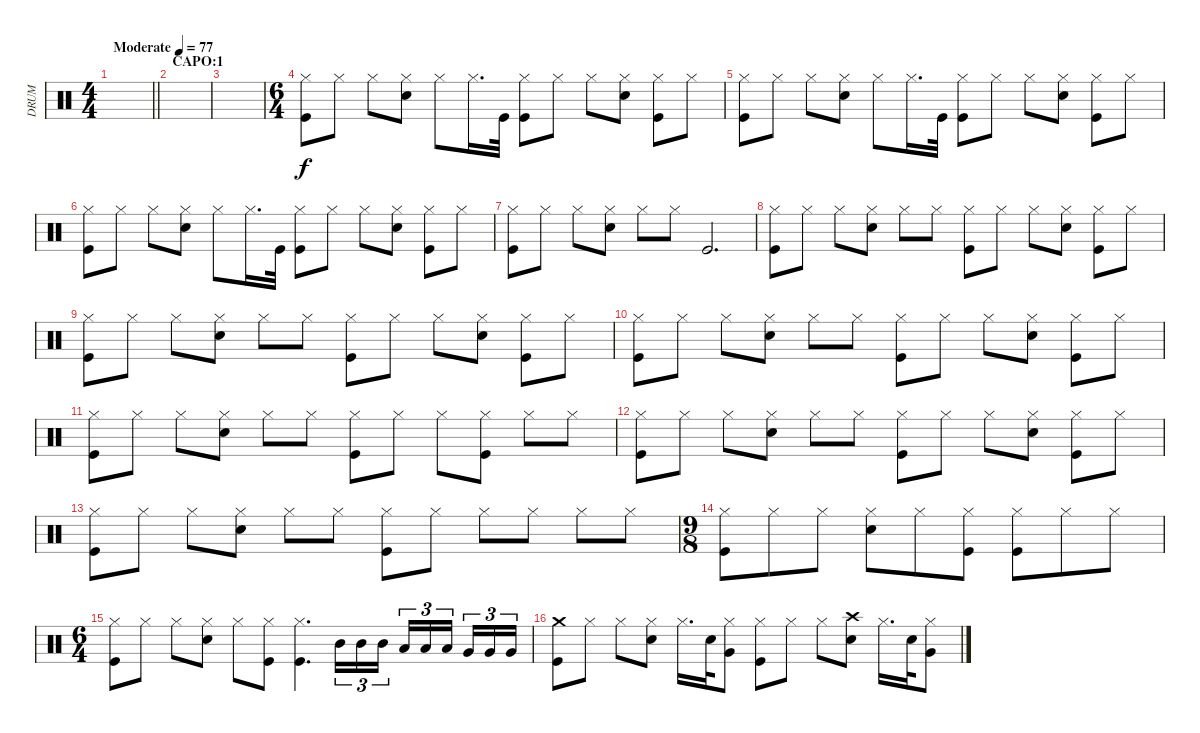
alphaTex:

\track ("DRUM" "DRUM") {instrument percussion}
\staff {score}
\articulation defaults
\ts (4 4)
\tempo (77 "Moderate")
\clef neutral
\barLineRight lightlight
\ks c
|
\section ("" "CAPO:1")
|
|
\ts (6 4)
("Hi-Hat (closed)" "Kick (hit)").8 "Hi-Hat (closed)".8 "Hi-Hat (closed)".8 ("Hi-Hat (closed)" "Snare (hit) 2").8 "Hi-Hat (closed)".8 "Hi-Hat (closed)".16{d} "Kick (hit)".32 ("Hi-Hat (closed)" "Kick (hit)").8 "Hi-Hat (closed)".8 "Hi-Hat (closed)".8 ("Hi-Hat (closed)" "Snare (hit) 2").8 ("Hi-Hat (closed)" "Kick (hit)").8 "Hi-Hat (closed)".8 |
("Hi-Hat (closed)" "Kick (hit)").8 "Hi-Hat (closed)".8 "Hi-Hat (closed)".8 ("Hi-Hat (closed)" "Snare (hit) 2").8 "Hi-Hat (closed)".8 "Hi-Hat (closed)".16{d} "Kick (hit)".32 ("Hi-Hat (closed)" "Kick (hit)").8 "Hi-Hat (closed)".8 "Hi-Hat (closed)".8 ("Hi-Hat (closed)" "Snare (hit) 2").8 ("Hi-Hat (closed)" "Kick (hit)").8 "Hi-Hat (closed)".8 |
("Hi-Hat (closed)" "Kick (hit)").8 "Hi-Hat (closed)".8 "Hi-Hat (closed)".8 ("Hi-Hat (closed)" "Snare (hit) 2").8 "Hi-Hat (closed)".8 "Hi-Hat (closed)".16{d} "Kick (hit)".32 ("Hi-Hat (closed)" "Kick (hit)").8 "Hi-Hat (closed)".8 "Hi-Hat (closed)".8 ("Hi-Hat (closed)" "Snare (hit) 2").8 ("Hi-Hat (closed)" "Kick (hit)").8 "Hi-Hat (closed)".8 |
("Hi-Hat (closed)" "Kick (hit)").8 "Hi-Hat (closed)".8 "Hi-Hat (closed)".8 ("Hi-Hat (closed)" "Snare (hit) 2").8 "Hi-Hat (closed)".8 "Hi-Hat (closed)".8 "Kick (hit)".2{d} |
("Hi-Hat (closed)" "Kick (hit)").8 "Hi-Hat (closed)".8 "Hi-Hat (closed)".8 ("Hi-Hat (closed)" "Snare (hit) 2").8 "Hi-Hat (closed)".8 "Hi-Hat (closed)".8 ("Hi-Hat (closed)" "Kick (hit)").8 "Hi-Hat (closed)".8 "Hi-Hat (closed)".8 ("Hi-Hat (closed)" "Snare (hit) 2").8 ("Hi-Hat (closed)" "Kick (hit)").8 "Hi-Hat (closed)".8 |
("Hi-Hat (closed)" "Kick (hit)").8 "Hi-Hat (closed)".8 "Hi-Hat (closed)".8 ("Hi-Hat (closed)" "Snare (hit) 2").8 "Hi-Hat (closed)".8 "Hi-Hat (closed)".8 ("Hi-Hat (closed)" "Kick (hit)").8 "Hi-Hat (closed)".8 "Hi-Hat (closed)".8 ("Hi-Hat (closed)" "Snare (hit) 2").8 ("Hi-Hat (closed)" "Kick (hit)").8 "Hi-Hat (closed)".8 |
("Hi-Hat (closed)" "Kick (hit)").8 "Hi-Hat (closed)".8 "Hi-Hat (closed)".8 ("Hi-Hat (closed)" "Snare (hit) 2").8 "Hi-Hat (closed)".8 "Hi-Hat (closed)".8 ("Hi-Hat (closed)" "Kick (hit)").8 "Hi-Hat (closed)".8 "Hi-Hat (closed)".8 ("Hi-Hat (closed)" "Snare (hit) 2").8 ("Hi-Hat (closed)" "Kick (hit)").8 "Hi-Hat (closed)".8 |
("Hi-Hat (closed)" "Kick (hit)").8 "Hi-Hat (closed)".8 "Hi-Hat (closed)".8 ("Hi-Hat (closed)" "Snare (hit) 2").8 "Hi-Hat (closed)".8 "Hi-Hat (closed)".8 ("Hi-Hat (closed)" "Kick (hit)").8 "Hi-Hat (closed)".8 "Hi-Hat (closed)".8 ("Hi-Hat (closed)" "Kick (hit)").8 "Hi-Hat (closed)".8 "Hi-Hat (closed)".8 |
("Hi-Hat (closed)" "Kick (hit)").8 "Hi-Hat (closed)".8 "Hi-Hat (closed)".8 ("Hi-Hat (closed)" "Snare (hit) 2").8 "Hi-Hat (closed)".8 "Hi-Hat (closed)".8 ("Hi-Hat (closed)" "Kick (hit)").8 "Hi-Hat (closed)".8 "Hi-Hat (closed)".8 ("Hi-Hat (closed)" "Snare (hit) 2").8 ("Hi-Hat (closed)" "Kick (hit)").8 "Hi-Hat (closed)".8 |
("Hi-Hat (closed)" "Kick (hit)").8 "Hi-Hat (closed)".8 "Hi-Hat (closed)".8 ("Hi-Hat (closed)" "Snare (hit) 2").8 "Hi-Hat (closed)".8 "Hi-Hat (closed)".8 ("Hi-Hat (closed)" "Kick (hit)").8 "Hi-Hat (closed)".8 "Hi-Hat (closed)".8 "Hi-Hat (closed)".8 "Hi-Hat (closed)".8 "Hi-Hat (closed)".8 |
\ts (9 8)
("Hi-Hat (closed)" "Kick (hit)").8 "Hi-Hat (closed)".8 "Hi-Hat (closed)".8 ("Hi-Hat (closed)" "Snare (hit) 2").8 "Hi-Hat (closed)".8 ("Hi-Hat (closed)" "Kick (hit)").8 ("Hi-Hat (closed)" "Kick (hit)").8 "Hi-Hat (closed)".8 "Hi-Hat (closed)".8 |
\ts (6 4)
("Hi-Hat (closed)" "Kick (hit)").8 "Hi-Hat (closed)".8 "Hi-Hat (closed)".8 ("Hi-Hat (closed)" "Snare (hit) 2").8 "Hi-Hat (closed)".8 ("Hi-Hat (closed)" "Kick (hit)").8 ("Hi-Hat (closed)" "Kick (hit)").4{d} "Mid Tom (hit)".16{tu (3 2)} "Mid Tom (hit)".16{tu (3 2)} "Mid Tom (hit)".16{tu (3 2) beam splitsecondary} "Low Tom (hit)".16{tu (3 2)} "Low Tom (hit)".16{tu (3 2)} "Low Tom (hit)".16{tu (3 2) beam splitsecondary} "Very Low Tom (hit)".16{tu (3 2)} "Very Low Tom (hit)".16{tu (3 2)} "Very Low Tom (hit)".16{tu (3 2)} |
("Crash medium (hit)" "Kick (hit)").8 "Hi-Hat (closed)".8 "Hi-Hat (closed)".8 ("Hi-Hat (closed)" "Snare (hit) 2").8 "Hi-Hat (closed)".16{d} "Snare (hit) 2".32 ("Hi-Hat (closed)" "Very Low Tom (hit)").8 ("Hi-Hat (closed)" "Kick (hit)").8 "Hi-Hat (closed)".8 "Hi-Hat (closed)".8 ("Crash high (hit)" "Snare (hit) 2").8 "Hi-Hat (closed)".16{d} "Snare (hit) 2".32 ("Hi-Hat (closed)" "Very Low Tom (hit)").8
